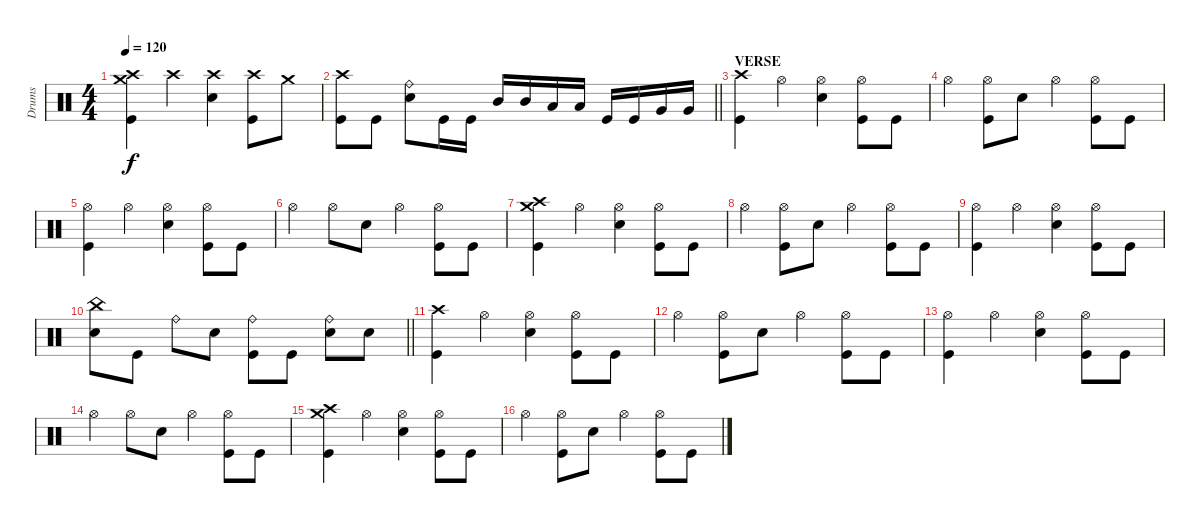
\track ("Drums" "Drums") {instrument percussion}
\staff
\articulation defaults
\ts (4 4)
\tempo 120
\clef neutral
\ks c
("Crash high (hit)" "Crash medium (hit)" "Kick (hit)").4{dy f} "Crash high (hit)".4 ("Crash high (hit)" "Electric Snare (hit)").4 ("Crash high (hit)" "Kick (hit)").8 "Crash medium (hit)".8 |
\barLineRight lightlight
("Crash high (hit)" "Kick (hit)").8 "Kick (hit)".8 ("Ride (bell)" "Electric Snare (hit)").8 "Kick (hit)".16 "Kick (hit)".16 "Mid Tom (hit)".16 "Mid Tom (hit)".16 "Low Tom (hit)".16 "Low Tom (hit)".16 "Kick (hit)".16 "Kick (hit)".16 "Very Low Tom (hit)".16 "Very Low Tom (hit)".16 |
\section ("" "VERSE")
("Crash high (hit)" "Kick (hit)").4 "Hi-Hat (open)".4 ("Hi-Hat (open)" "Electric Snare (hit)").4 ("Hi-Hat (open)" "Kick (hit)").8 "Kick (hit)".8 |
"Hi-Hat (open)".4 ("Hi-Hat (open)" "Kick (hit)").8 "Electric Snare (hit)".8 "Hi-Hat (open)".4 ("Hi-Hat (open)" "Kick (hit)").8 "Kick (hit)".8 |
("Hi-Hat (open)" "Kick (hit)").4 "Hi-Hat (open)".4 ("Hi-Hat (open)" "Electric Snare (hit)").4 ("Hi-Hat (open)" "Kick (hit)").8 "Kick (hit)".8 |
"Hi-Hat (open)".4 "Hi-Hat (open)".8 "Electric Snare (hit)".8 "Hi-Hat (open)".4 ("Hi-Hat (open)" "Kick (hit)").8 "Kick (hit)".8 |
("Crash high (hit)" "Crash medium (hit)" "Kick (hit)").4 "Hi-Hat (open)".4 ("Hi-Hat (open)" "Electric Snare (hit)").4 ("Hi-Hat (open)" "Kick (hit)").8 "Kick (hit)".8 |
"Hi-Hat (open)".4 ("Hi-Hat (open)" "Kick (hit)").8 "Electric Snare (hit)".8 "Hi-Hat (open)".4 ("Hi-Hat (open)" "Kick (hit)").8 "Kick (hit)".8 |
("Hi-Hat (open)" "Kick (hit)").4 "Hi-Hat (open)".4 ("Hi-Hat (open)" "Electric Snare (hit)").4 ("Hi-Hat (open)" "Kick (hit)").8 "Kick (hit)".8 |
\barLineRight lightlight
("China (hit)" "Electric Snare (hit)").8 "Kick (hit)".8 "Ride (bell)".8 "Electric Snare (hit)".8 ("Ride (bell)" "Kick (hit)").8 "Kick (hit)".8 ("Ride (bell)" "Electric Snare (hit)").8 "Electric Snare (hit)".8 |
("Crash high (hit)" "Kick (hit)").4 "Hi-Hat (open)".4 ("Hi-Hat (open)" "Electric Snare (hit)").4 ("Hi-Hat (open)" "Kick (hit)").8 "Kick (hit)".8 |
"Hi-Hat (open)".4 ("Hi-Hat (open)" "Kick (hit)").8 "Electric Snare (hit)".8 "Hi-Hat (open)".4 ("Hi-Hat (open)" "Kick (hit)").8 "Kick (hit)".8 |
("Hi-Hat (open)" "Kick (hit)").4 "Hi-Hat (open)".4 ("Hi-Hat (open)" "Electric Snare (hit)").4 ("Hi-Hat (open)" "Kick (hit)").8 "Kick (hit)".8 |
"Hi-Hat (open)".4 "Hi-Hat (open)".8 "Electric Snare (hit)".8 "Hi-Hat (open)".4 ("Hi-Hat (open)" "Kick (hit)").8 "Kick (hit)".8 |
("Crash high (hit)" "Crash medium (hit)" "Kick (hit)").4 "Hi-Hat (open)".4 ("Hi-Hat (open)" "Electric Snare (hit)").4 ("Hi-Hat (open)" "Kick (hit)").8 "Kick (hit)".8 |
"Hi-Hat (open)".4 ("Hi-Hat (open)" "Kick (hit)").8 "Electric Snare (hit)".8 "Hi-Hat (open)".4 ("Hi-Hat (open)" "Kick (hit)").8 "Kick (hit)".8
